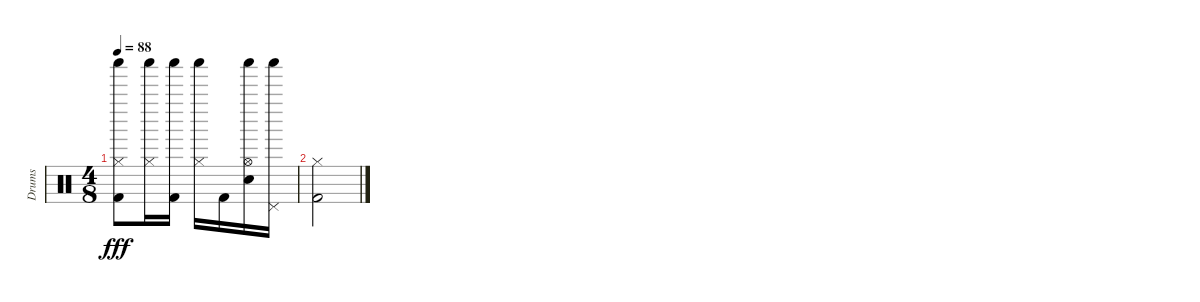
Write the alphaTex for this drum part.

\track ("Drums" "Drums") {instrument percussion}
\staff {score}
\articulation defaults
\ts (4 8)
\tempo 88
\clef neutral
\ks c
("Hi-Hat (closed)" "Shaker (hit)" "Kick (hit) 2").8{dy fff} ("Hi-Hat (closed)" "Shaker (hit)").16 ("Shaker (hit)" "Kick (hit) 2").16 ("Hi-Hat (closed)" "Shaker (hit)").16 "Kick (hit) 2".16 ("Hi-Hat (open)" "Shaker (hit)" "Snare (hit) 2").16 ("Pedal Hi-Hat (hit)" "Shaker (hit)").16 |
("Hi-Hat (closed)" "Kick (hit) 2").2
